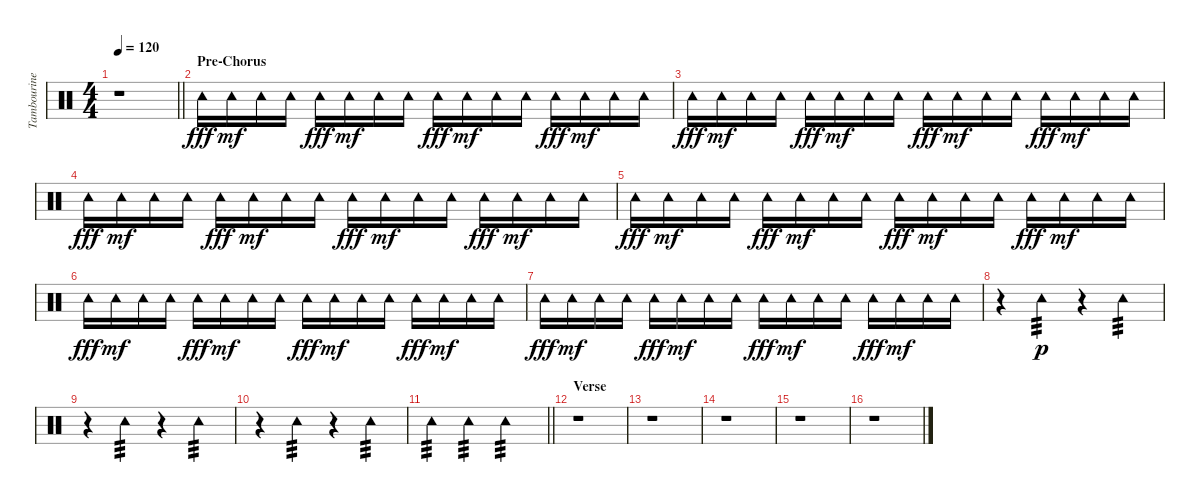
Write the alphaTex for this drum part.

\track ("Tambourine" "Tambourine") {instrument percussion}
\staff {score}
\articulation defaults
\ts (4 4)
\tempo 120
\clef neutral
\barLineRight lightlight
\ks c
r.1{dy fff} |
\section ("" "Pre-Chorus")
"Tambourine (hit)".16 "Tambourine (hit)".16{dy mf} "Tambourine (hit)".16 "Tambourine (hit)".16 "Tambourine (hit)".16{dy fff} "Tambourine (hit)".16{dy mf} "Tambourine (hit)".16 "Tambourine (hit)".16 "Tambourine (hit)".16{dy fff} "Tambourine (hit)".16{dy mf} "Tambourine (hit)".16 "Tambourine (hit)".16 "Tambourine (hit)".16{dy fff} "Tambourine (hit)".16{dy mf} "Tambourine (hit)".16 "Tambourine (hit)".16 |
"Tambourine (hit)".16{dy fff} "Tambourine (hit)".16{dy mf} "Tambourine (hit)".16 "Tambourine (hit)".16 "Tambourine (hit)".16{dy fff} "Tambourine (hit)".16{dy mf} "Tambourine (hit)".16 "Tambourine (hit)".16 "Tambourine (hit)".16{dy fff} "Tambourine (hit)".16{dy mf} "Tambourine (hit)".16 "Tambourine (hit)".16 "Tambourine (hit)".16{dy fff} "Tambourine (hit)".16{dy mf} "Tambourine (hit)".16 "Tambourine (hit)".16 |
"Tambourine (hit)".16{dy fff} "Tambourine (hit)".16{dy mf} "Tambourine (hit)".16 "Tambourine (hit)".16 "Tambourine (hit)".16{dy fff} "Tambourine (hit)".16{dy mf} "Tambourine (hit)".16 "Tambourine (hit)".16 "Tambourine (hit)".16{dy fff} "Tambourine (hit)".16{dy mf} "Tambourine (hit)".16 "Tambourine (hit)".16 "Tambourine (hit)".16{dy fff} "Tambourine (hit)".16{dy mf} "Tambourine (hit)".16 "Tambourine (hit)".16 |
"Tambourine (hit)".16{dy fff} "Tambourine (hit)".16{dy mf} "Tambourine (hit)".16 "Tambourine (hit)".16 "Tambourine (hit)".16{dy fff} "Tambourine (hit)".16{dy mf} "Tambourine (hit)".16 "Tambourine (hit)".16 "Tambourine (hit)".16{dy fff} "Tambourine (hit)".16{dy mf} "Tambourine (hit)".16 "Tambourine (hit)".16 "Tambourine (hit)".16{dy fff} "Tambourine (hit)".16{dy mf} "Tambourine (hit)".16 "Tambourine (hit)".16 |
"Tambourine (hit)".16{dy fff} "Tambourine (hit)".16{dy mf} "Tambourine (hit)".16 "Tambourine (hit)".16 "Tambourine (hit)".16{dy fff} "Tambourine (hit)".16{dy mf} "Tambourine (hit)".16 "Tambourine (hit)".16 "Tambourine (hit)".16{dy fff} "Tambourine (hit)".16{dy mf} "Tambourine (hit)".16 "Tambourine (hit)".16 "Tambourine (hit)".16{dy fff} "Tambourine (hit)".16{dy mf} "Tambourine (hit)".16 "Tambourine (hit)".16 |
"Tambourine (hit)".16{dy fff} "Tambourine (hit)".16{dy mf} "Tambourine (hit)".16 "Tambourine (hit)".16 "Tambourine (hit)".16{dy fff} "Tambourine (hit)".16{dy mf} "Tambourine (hit)".16 "Tambourine (hit)".16 "Tambourine (hit)".16{dy fff} "Tambourine (hit)".16{dy mf} "Tambourine (hit)".16 "Tambourine (hit)".16 "Tambourine (hit)".16{dy fff} "Tambourine (hit)".16{dy mf} "Tambourine (hit)".16 "Tambourine (hit)".16 |
r.4 "Tambourine (hit)".4{tp 3 dy p} r.4 "Tambourine (hit)".4{tp 3} |
r.4 "Tambourine (hit)".4{tp 3} r.4 "Tambourine (hit)".4{tp 3} |
r.4 "Tambourine (hit)".4{tp 3} r.4 "Tambourine (hit)".4{tp 3} |
\barLineRight lightlight "Tambourine (hit)".4{tp 3} "Tambourine (hit)".4{tp 3} "Tambourine (hit)".2{tp 3}
|
\section ("" "Verse")
r.1 |
r.1 |
r.1 |
r.1 |
r.1
